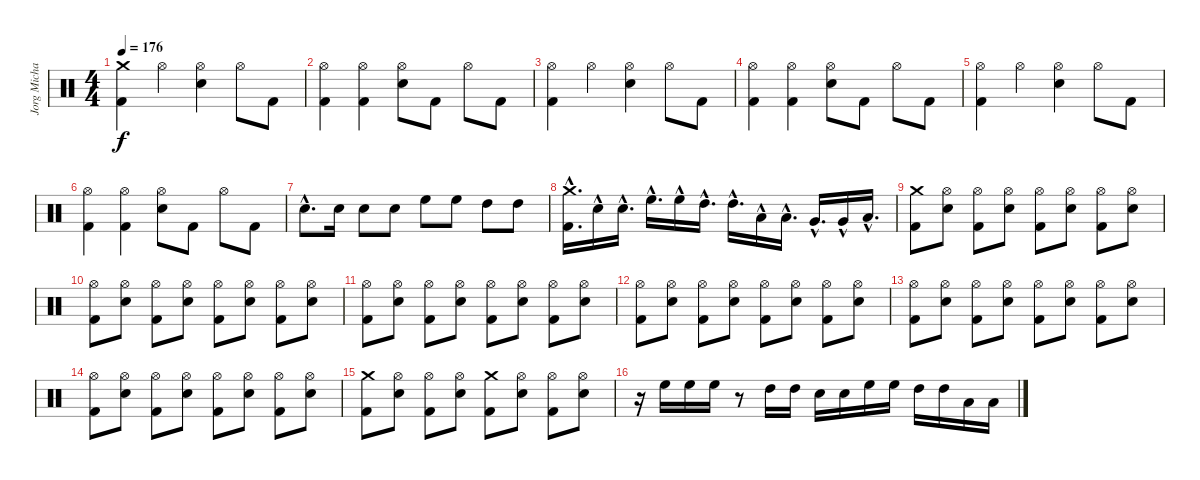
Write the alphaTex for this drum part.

\track ("Jorg Michael" "Jorg Micha") {instrument percussion}
\staff {score}
\articulation defaults
\ts (4 4)
\tempo 176
\clef neutral
\ks c
("Kick (hit) 2" "Crash medium (hit)").4{dy f} "Hi-Hat (open)".4 ("Snare (hit) 2" "Hi-Hat (open)").4 "Hi-Hat (open)".8 "Kick (hit) 2".8 |
("Hi-Hat (open)" "Kick (hit) 2").4 ("Hi-Hat (open)" "Kick (hit) 2").4 ("Hi-Hat (open)" "Snare (hit) 2").8 "Kick (hit) 2".8 "Hi-Hat (open)".8 "Kick (hit) 2".8 |
("Hi-Hat (open)" "Kick (hit) 2").4 "Hi-Hat (open)".4 ("Snare (hit) 2" "Hi-Hat (open)").4 "Hi-Hat (open)".8 "Kick (hit) 2".8 |
("Hi-Hat (open)" "Kick (hit) 2").4 ("Hi-Hat (open)" "Kick (hit) 2").4 ("Hi-Hat (open)" "Snare (hit) 2").8 "Kick (hit) 2".8 "Hi-Hat (open)".8 "Kick (hit) 2".8 |
("Hi-Hat (open)" "Kick (hit) 2").4 "Hi-Hat (open)".4 ("Snare (hit) 2" "Hi-Hat (open)").4 "Hi-Hat (open)".8 "Kick (hit) 2".8 |
("Hi-Hat (open)" "Kick (hit) 2").4 ("Hi-Hat (open)" "Kick (hit) 2").4 ("Hi-Hat (open)" "Snare (hit) 2").8 "Kick (hit) 2".8 "Hi-Hat (open)".8 "Kick (hit) 2".8 |
"Snare (hit) 2"{hac}.8{d} "Snare (hit) 2".16 "Snare (hit) 2".8 "Snare (hit) 2".8 "High Floor Tom (hit)".8 "High Floor Tom (hit)".8 "High Tom (hit)".8 "High Tom (hit)".8 |
("Kick (hit) 2" "Crash medium (hit)"{hac}).16{d} "Snare (hit) 2"{hac}.16 "Snare (hit) 2"{hac}.16{d} "High Floor Tom (hit)"{hac}.16{d} "High Floor Tom (hit)"{hac}.16 "High Tom (hit)"{hac}.16{d} "High Tom (hit)"{hac}.16{d} "Low Tom (hit)"{hac}.16 "Low Tom (hit)"{hac}.16{d} "Very Low Tom (hit)"{hac}.16{d} "Very Low Tom (hit)"{hac}.16 "Low Floor Tom (hit)"{hac}.16{d} |
("Crash medium (hit)" "Kick (hit) 2").8 ("Snare (hit) 2" "Hi-Hat (open)").8 ("Kick (hit) 2" "Hi-Hat (open)").8 ("Snare (hit) 2" "Hi-Hat (open)").8 ("Kick (hit) 2" "Hi-Hat (open)").8 ("Snare (hit) 2" "Hi-Hat (open)").8 ("Kick (hit) 2" "Hi-Hat (open)").8 ("Snare (hit) 2" "Hi-Hat (open)").8 |
("Hi-Hat (open)" "Kick (hit) 2").8 ("Snare (hit) 2" "Hi-Hat (open)").8 ("Kick (hit) 2" "Hi-Hat (open)").8 ("Snare (hit) 2" "Hi-Hat (open)").8 ("Kick (hit) 2" "Hi-Hat (open)").8 ("Snare (hit) 2" "Hi-Hat (open)").8 ("Kick (hit) 2" "Hi-Hat (open)").8 ("Snare (hit) 2" "Hi-Hat (open)").8 |
("Hi-Hat (open)" "Kick (hit) 2").8 ("Snare (hit) 2" "Hi-Hat (open)").8 ("Kick (hit) 2" "Hi-Hat (open)").8 ("Snare (hit) 2" "Hi-Hat (open)").8 ("Kick (hit) 2" "Hi-Hat (open)").8 ("Snare (hit) 2" "Hi-Hat (open)").8 ("Kick (hit) 2" "Hi-Hat (open)").8 ("Snare (hit) 2" "Hi-Hat (open)").8 |
("Hi-Hat (open)" "Kick (hit) 2").8 ("Snare (hit) 2" "Hi-Hat (open)").8 ("Kick (hit) 2" "Hi-Hat (open)").8 ("Snare (hit) 2" "Hi-Hat (open)").8 ("Kick (hit) 2" "Hi-Hat (open)").8 ("Snare (hit) 2" "Hi-Hat (open)").8 ("Kick (hit) 2" "Hi-Hat (open)").8 ("Snare (hit) 2" "Hi-Hat (open)").8 |
("Hi-Hat (open)" "Kick (hit) 2").8 ("Snare (hit) 2" "Hi-Hat (open)").8 ("Kick (hit) 2" "Hi-Hat (open)").8 ("Snare (hit) 2" "Hi-Hat (open)").8 ("Kick (hit) 2" "Hi-Hat (open)").8 ("Snare (hit) 2" "Hi-Hat (open)").8 ("Kick (hit) 2" "Hi-Hat (open)").8 ("Snare (hit) 2" "Hi-Hat (open)").8 |
("Hi-Hat (open)" "Kick (hit) 2").8 ("Snare (hit) 2" "Hi-Hat (open)").8 ("Kick (hit) 2" "Hi-Hat (open)").8 ("Snare (hit) 2" "Hi-Hat (open)").8 ("Kick (hit) 2" "Hi-Hat (open)").8 ("Snare (hit) 2" "Hi-Hat (open)").8 ("Kick (hit) 2" "Hi-Hat (open)").8 ("Snare (hit) 2" "Hi-Hat (open)").8 |
("Crash medium (hit)" "Kick (hit) 2").8 ("Snare (hit) 2" "Hi-Hat (open)").8 ("Kick (hit) 2" "Hi-Hat (open)").8 ("Snare (hit) 2" "Hi-Hat (open)").8 ("Crash medium (hit)" "Kick (hit) 2").8 ("Snare (hit) 2" "Hi-Hat (open)").8 ("Kick (hit) 2" "Hi-Hat (open)").8 ("Snare (hit) 2" "Hi-Hat (open)").8 |
r.16 "High Floor Tom (hit)".16 "High Floor Tom (hit)".16 "High Floor Tom (hit)".16 r.8 "High Tom (hit)".16 "High Tom (hit)".16 "Snare (hit) 2".16 "Snare (hit) 2".16 "High Floor Tom (hit)".16 "High Floor Tom (hit)".16 "High Tom (hit)".16 "High Tom (hit)".16 "Low Tom (hit)".16 "Low Tom (hit)".16
